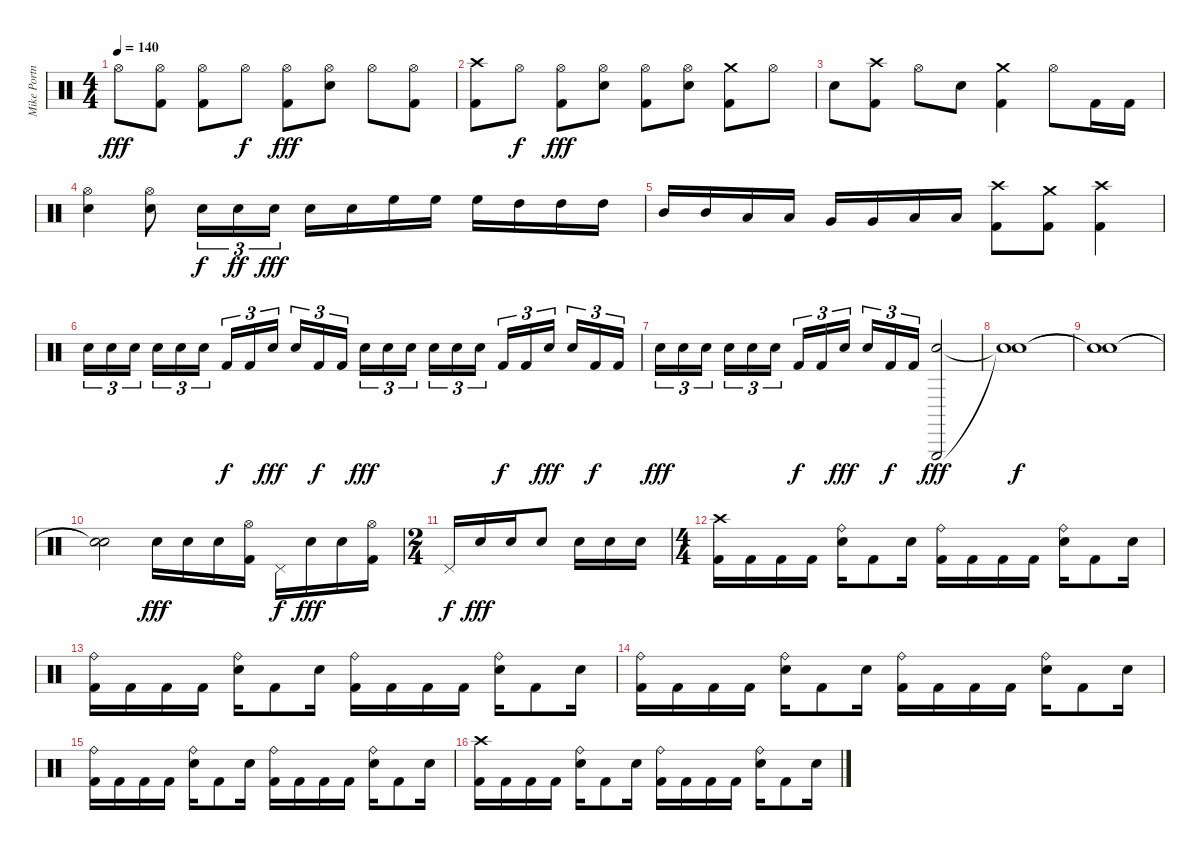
\track ("Mike Portnoy" "Mike Portn") {instrument percussion}
\staff {score}
\articulation defaults
\ts (4 4)
\tempo 140
\clef neutral
\ks c "Hi-Hat (open)".8{dy fff}
("Hi-Hat (open)" "Kick (hit) 2").8 ("Hi-Hat (open)" "Kick (hit) 2").8 "Hi-Hat (open)".8{dy f} ("Hi-Hat (open)" "Kick (hit) 2").8{dy fff} ("Hi-Hat (open)" "Snare (hit) 2").8 "Hi-Hat (open)".8 ("Hi-Hat (open)" "Kick (hit) 2").8 |
("Crash high (hit)" "Kick (hit) 2").8 "Hi-Hat (open)".8{dy f} ("Hi-Hat (open)" "Kick (hit) 2").8{dy fff} ("Hi-Hat (open)" "Snare (hit) 2").8 ("Hi-Hat (open)" "Kick (hit) 2").8 ("Hi-Hat (open)" "Snare (hit) 2").8 ("Crash medium (hit)" "Kick (hit) 2").8 "Hi-Hat (open)".8 |
"Snare (hit) 2".8 ("Crash high (hit)" "Kick (hit) 2").8 "Hi-Hat (open)".8 "Snare (hit) 2".8 ("Crash medium (hit)" "Kick (hit) 2").4 "Hi-Hat (open)".8 "Kick (hit) 2".16 "Kick (hit) 2".16 |
("Hi-Hat (open)" "Snare (hit) 2").4 ("Hi-Hat (open)" "Snare (hit) 2").8 "Snare (hit) 2".16{tu (3 2) dy f} "Snare (hit) 2".16{tu (3 2) dy ff} "Snare (hit) 2".16{tu (3 2) dy fff} "Snare (hit) 2".16 "Snare (hit) 2".16 "High Floor Tom (hit)".16 "High Floor Tom (hit)".16 "High Floor Tom (hit)".16 "High Tom (hit)".16 "High Tom (hit)".16 "High Tom (hit)".16 |
"Mid Tom (hit)".16 "Mid Tom (hit)".16 "Low Tom (hit)".16 "Low Tom (hit)".16 "Very Low Tom (hit)".16 "Very Low Tom (hit)".16 "Low Floor Tom (hit)".16 "Low Floor Tom (hit)".16 ("Crash high (hit)" "Kick (hit) 2").8 ("Crash medium (hit)" "Kick (hit) 2").8 ("Crash high (hit)" "Kick (hit) 2").4 |
"Snare (hit) 2".16{tu (3 2)} "Snare (hit) 2".16{tu (3 2)} "Snare (hit) 2".16{tu (3 2)} "Snare (hit) 2".16{tu (3 2)} "Snare (hit) 2".16{tu (3 2)} "Snare (hit) 2".16{tu (3 2)} "Kick (hit) 2".16{tu (3 2) dy f} "Kick (hit) 2".16{tu (3 2)} "Snare (hit) 2".16{tu (3 2) dy fff} "Snare (hit) 2".16{tu (3 2)} "Kick (hit) 2".16{tu (3 2) dy f} "Kick (hit) 2".16{tu (3 2)} "Snare (hit) 2".16{tu (3 2) dy fff} "Snare (hit) 2".16{tu (3 2)} "Snare (hit) 2".16{tu (3 2)} "Snare (hit) 2".16{tu (3 2)} "Snare (hit) 2".16{tu (3 2)} "Snare (hit) 2".16{tu (3 2)} "Kick (hit) 2".16{tu (3 2) dy f} "Kick (hit) 2".16{tu (3 2)} "Snare (hit) 2".16{tu (3 2) dy fff} "Snare (hit) 2".16{tu (3 2)} "Kick (hit) 2".16{tu (3 2) dy f} "Kick (hit) 2".16{tu (3 2)} |
"Snare (hit) 2".16{tu (3 2) dy fff} "Snare (hit) 2".16{tu (3 2)} "Snare (hit) 2".16{tu (3 2)} "Snare (hit) 2".16{tu (3 2)} "Snare (hit) 2".16{tu (3 2)} "Snare (hit) 2".16{tu (3 2)} "Kick (hit) 2".16{tu (3 2) dy f} "Kick (hit) 2".16{tu (3 2)} "Snare (hit) 2".16{tu (3 2) dy fff} "Snare (hit) 2".16{tu (3 2)} "Kick (hit) 2".16{tu (3 2) dy f} "Kick (hit) 2".16{tu (3 2)} ("Snare (hit) 2" "Triangle (hit)").2{dy fff} |
("Snare (hit)"{t} "Snare (hit)"{t}).1{dy f} |
("Snare (hit)"{t} "Snare (hit)"{t}).1 |
("Snare (hit)"{t} "Snare (hit)"{t}).2 "Snare (hit) 2".16{dy fff} "Snare (hit) 2".16 "Snare (hit) 2".16 ("Hi-Hat (open)" "Kick (hit) 2").16 "Pedal Hi-Hat (hit)".16{dy f} "Snare (hit) 2".16{dy fff} "Snare (hit) 2".16 ("Hi-Hat (open)" "Kick (hit) 2").16 |
\ts (2 4)
"Pedal Hi-Hat (hit)".16{dy f} "Snare (hit) 2".16{dy fff} "Snare (hit) 2".16 "Snare (hit) 2".8 "Snare (hit) 2".16 "Snare (hit) 2".16 "Snare (hit) 2".16 |
\ts (4 4)
("Crash high (hit)" "Kick (hit) 2").16 "Kick (hit) 2".16 "Kick (hit) 2".16 "Kick (hit) 2".16 ("Ride (bell)" "Snare (hit) 2").16 "Kick (hit) 2".8 "Snare (hit) 2".16 ("Ride (bell)" "Kick (hit) 2").16 "Kick (hit) 2".16 "Kick (hit) 2".16 "Kick (hit) 2".16 ("Ride (bell)" "Snare (hit) 2").16 "Kick (hit) 2".8 "Snare (hit) 2".16 |
("Ride (bell)" "Kick (hit) 2").16 "Kick (hit) 2".16 "Kick (hit) 2".16 "Kick (hit) 2".16 ("Ride (bell)" "Snare (hit) 2").16 "Kick (hit) 2".8 "Snare (hit) 2".16 ("Ride (bell)" "Kick (hit) 2").16 "Kick (hit) 2".16 "Kick (hit) 2".16 "Kick (hit) 2".16 ("Ride (bell)" "Snare (hit) 2").16 "Kick (hit) 2".8 "Snare (hit) 2".16 |
("Ride (bell)" "Kick (hit) 2").16 "Kick (hit) 2".16 "Kick (hit) 2".16 "Kick (hit) 2".16 ("Ride (bell)" "Snare (hit) 2").16 "Kick (hit) 2".8 "Snare (hit) 2".16 ("Ride (bell)" "Kick (hit) 2").16 "Kick (hit) 2".16 "Kick (hit) 2".16 "Kick (hit) 2".16 ("Ride (bell)" "Snare (hit) 2").16 "Kick (hit) 2".8 "Snare (hit) 2".16 |
("Ride (bell)" "Kick (hit) 2").16 "Kick (hit) 2".16 "Kick (hit) 2".16 "Kick (hit) 2".16 ("Ride (bell)" "Snare (hit) 2").16 "Kick (hit) 2".8 "Snare (hit) 2".16 ("Ride (bell)" "Kick (hit) 2").16 "Kick (hit) 2".16 "Kick (hit) 2".16 "Kick (hit) 2".16 ("Ride (bell)" "Snare (hit) 2").16 "Kick (hit) 2".8 "Snare (hit) 2".16 |
("Crash high (hit)" "Kick (hit) 2").16 "Kick (hit) 2".16 "Kick (hit) 2".16 "Kick (hit) 2".16 ("Ride (bell)" "Snare (hit) 2").16 "Kick (hit) 2".8 "Snare (hit) 2".16 ("Ride (bell)" "Kick (hit) 2").16 "Kick (hit) 2".16 "Kick (hit) 2".16 "Kick (hit) 2".16 ("Ride (bell)" "Snare (hit) 2").16 "Kick (hit) 2".8 "Snare (hit) 2".16
